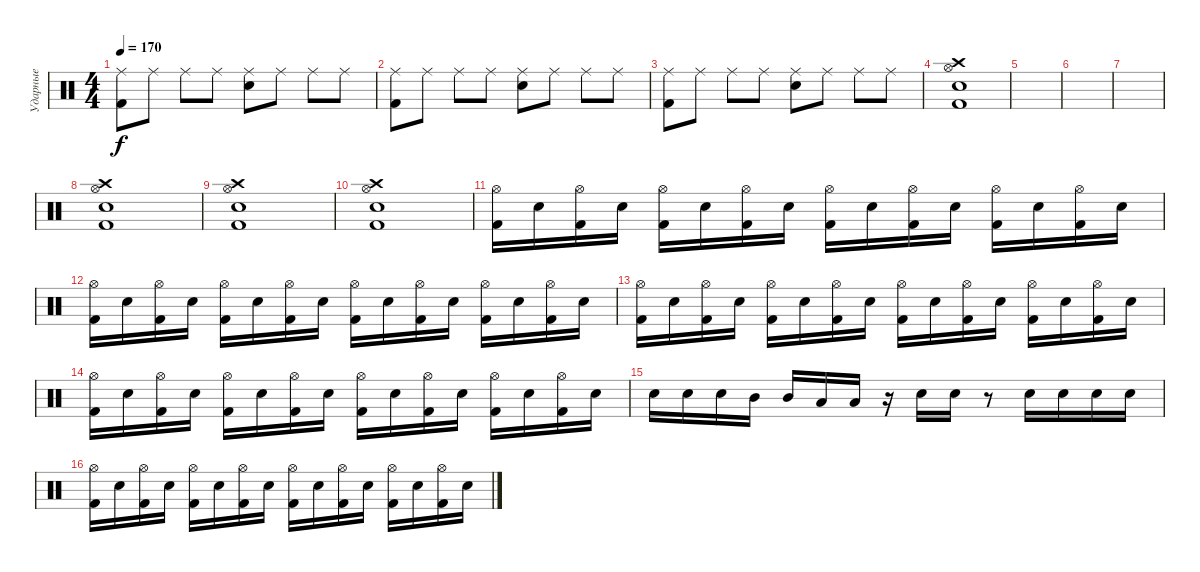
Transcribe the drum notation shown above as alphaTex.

\track ("Ударные" "Ударные") {instrument percussion}
\staff {score}
\articulation defaults
\ts (4 4)
\tempo 170
\clef neutral
\ks c
("Ride (middle)" "Kick (hit) 2").8{dy f} "Ride (middle)".8 "Ride (middle)".8 "Ride (middle)".8 ("Ride (middle)" "Snare (hit) 2").8 "Ride (middle)".8 "Ride (middle)".8 "Ride (middle)".8 |
("Ride (middle)" "Kick (hit) 2").8 "Ride (middle)".8 "Ride (middle)".8 "Ride (middle)".8 ("Ride (middle)" "Snare (hit) 2").8 "Ride (middle)".8 "Ride (middle)".8 "Ride (middle)".8 |
("Ride (middle)" "Kick (hit) 2").8 "Ride (middle)".8 "Ride (middle)".8 "Ride (middle)".8 ("Ride (middle)" "Snare (hit) 2").8 "Ride (middle)".8 "Ride (middle)".8 "Ride (middle)".8 |
("Crash high (hit)" "Snare (hit) 2" "Hi-Hat (open)" "Kick (hit) 2").1 |
|
|
|
("Crash high (hit)" "Hi-Hat (open)" "Snare (hit) 2" "Kick (hit) 2").1 |
("Crash high (hit)" "Hi-Hat (open)" "Snare (hit) 2" "Kick (hit) 2").1 |
("Crash high (hit)" "Hi-Hat (open)" "Snare (hit) 2" "Kick (hit) 2").1 |
("Hi-Hat (open)" "Kick (hit) 2").16 "Snare (hit) 2".16 ("Hi-Hat (open)" "Kick (hit) 2").16 "Snare (hit) 2".16 ("Hi-Hat (open)" "Kick (hit) 2").16 "Snare (hit) 2".16 ("Hi-Hat (open)" "Kick (hit) 2").16 "Snare (hit) 2".16 ("Hi-Hat (open)" "Kick (hit) 2").16 "Snare (hit) 2".16 ("Hi-Hat (open)" "Kick (hit) 2").16 "Snare (hit) 2".16 ("Hi-Hat (open)" "Kick (hit) 2").16 "Snare (hit) 2".16 ("Hi-Hat (open)" "Kick (hit) 2").16 "Snare (hit) 2".16 |
("Hi-Hat (open)" "Kick (hit) 2").16 "Snare (hit) 2".16 ("Hi-Hat (open)" "Kick (hit) 2").16 "Snare (hit) 2".16 ("Hi-Hat (open)" "Kick (hit) 2").16 "Snare (hit) 2".16 ("Hi-Hat (open)" "Kick (hit) 2").16 "Snare (hit) 2".16 ("Hi-Hat (open)" "Kick (hit) 2").16 "Snare (hit) 2".16 ("Hi-Hat (open)" "Kick (hit) 2").16 "Snare (hit) 2".16 ("Hi-Hat (open)" "Kick (hit) 2").16 "Snare (hit) 2".16 ("Hi-Hat (open)" "Kick (hit) 2").16 "Snare (hit) 2".16 |
("Hi-Hat (open)" "Kick (hit) 2").16 "Snare (hit) 2".16 ("Hi-Hat (open)" "Kick (hit) 2").16 "Snare (hit) 2".16 ("Hi-Hat (open)" "Kick (hit) 2").16 "Snare (hit) 2".16 ("Hi-Hat (open)" "Kick (hit) 2").16 "Snare (hit) 2".16 ("Hi-Hat (open)" "Kick (hit) 2").16 "Snare (hit) 2".16 ("Hi-Hat (open)" "Kick (hit) 2").16 "Snare (hit) 2".16 ("Hi-Hat (open)" "Kick (hit) 2").16 "Snare (hit) 2".16 ("Hi-Hat (open)" "Kick (hit) 2").16 "Snare (hit) 2".16 |
("Hi-Hat (open)" "Kick (hit) 2").16 "Snare (hit) 2".16 ("Hi-Hat (open)" "Kick (hit) 2").16 "Snare (hit) 2".16 ("Hi-Hat (open)" "Kick (hit) 2").16 "Snare (hit) 2".16 ("Hi-Hat (open)" "Kick (hit) 2").16 "Snare (hit) 2".16 ("Hi-Hat (open)" "Kick (hit) 2").16 "Snare (hit) 2".16 ("Hi-Hat (open)" "Kick (hit) 2").16 "Snare (hit) 2".16 ("Hi-Hat (open)" "Kick (hit) 2").16 "Snare (hit) 2".16 ("Hi-Hat (open)" "Kick (hit) 2").16 "Snare (hit) 2".16 |
"Snare (hit) 2".16 "Snare (hit) 2".16 "Snare (hit) 2".16 "Mid Tom (hit)".16 "Mid Tom (hit)".16 "Low Tom (hit)".16 "Low Tom (hit)".16 r.16 "Snare (hit) 2".16 "Snare (hit) 2".16 r.8 "Snare (hit) 2".16 "Snare (hit) 2".16 "Snare (hit) 2".16 "Snare (hit) 2".16 |
("Hi-Hat (open)" "Kick (hit) 2").16 "Snare (hit) 2".16 ("Hi-Hat (open)" "Kick (hit) 2").16 "Snare (hit) 2".16 ("Hi-Hat (open)" "Kick (hit) 2").16 "Snare (hit) 2".16 ("Hi-Hat (open)" "Kick (hit) 2").16 "Snare (hit) 2".16 ("Hi-Hat (open)" "Kick (hit) 2").16 "Snare (hit) 2".16 ("Hi-Hat (open)" "Kick (hit) 2").16 "Snare (hit) 2".16 ("Hi-Hat (open)" "Kick (hit) 2").16 "Snare (hit) 2".16 ("Hi-Hat (open)" "Kick (hit) 2").16 "Snare (hit) 2".16
